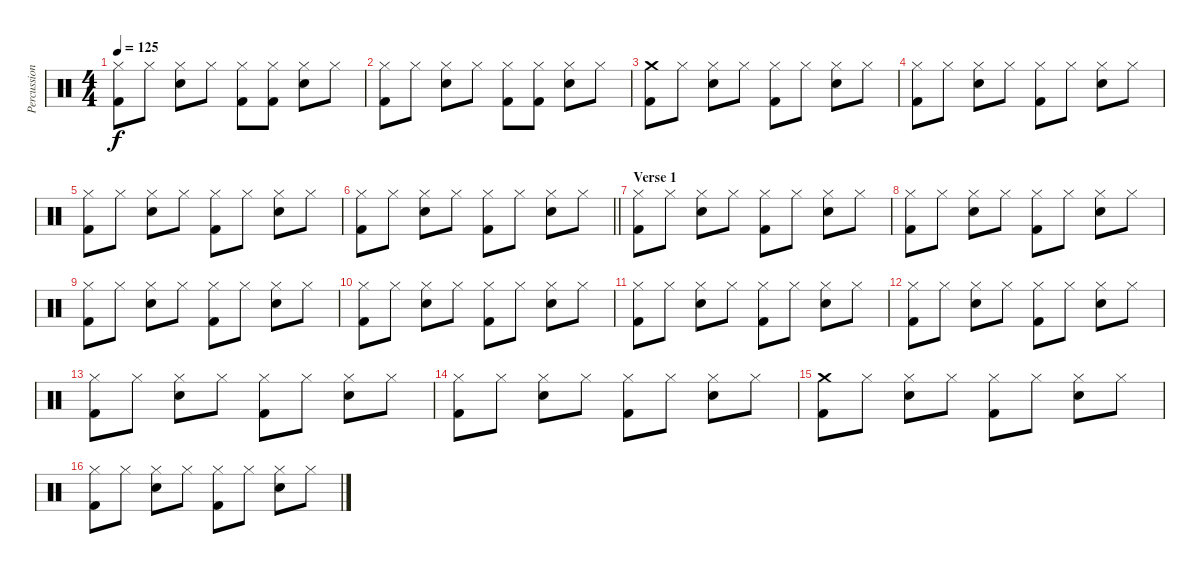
\track ("Percussion" "Percussion") {instrument percussion}
\staff {score}
\articulation defaults
\ts (4 4)
\tempo 125
\clef neutral
\ks c
("Hi-Hat (closed)" "Kick (hit) 2").8{dy f} "Hi-Hat (closed)".8 ("Hi-Hat (closed)" "Snare (hit) 2").8 "Hi-Hat (closed)".8 ("Hi-Hat (closed)" "Kick (hit) 2").8 ("Hi-Hat (closed)" "Kick (hit) 2").8 ("Hi-Hat (closed)" "Snare (hit) 2").8 "Hi-Hat (closed)".8 |
("Hi-Hat (closed)" "Kick (hit) 2").8 "Hi-Hat (closed)".8 ("Hi-Hat (closed)" "Snare (hit) 2").8 "Hi-Hat (closed)".8 ("Hi-Hat (closed)" "Kick (hit) 2").8 ("Hi-Hat (closed)" "Kick (hit) 2").8 ("Hi-Hat (closed)" "Snare (hit) 2").8 "Hi-Hat (closed)".8 |
("Crash medium (hit)" "Kick (hit) 2").8 "Hi-Hat (closed)".8 ("Hi-Hat (closed)" "Snare (hit) 2").8 "Hi-Hat (closed)".8 ("Hi-Hat (closed)" "Kick (hit) 2").8 "Hi-Hat (closed)".8 ("Hi-Hat (closed)" "Snare (hit) 2").8 "Hi-Hat (closed)".8 |
("Hi-Hat (closed)" "Kick (hit) 2").8 "Hi-Hat (closed)".8 ("Hi-Hat (closed)" "Snare (hit) 2").8 "Hi-Hat (closed)".8 ("Hi-Hat (closed)" "Kick (hit) 2").8 "Hi-Hat (closed)".8 ("Hi-Hat (closed)" "Snare (hit) 2").8 "Hi-Hat (closed)".8 |
("Hi-Hat (closed)" "Kick (hit) 2").8 "Hi-Hat (closed)".8 ("Hi-Hat (closed)" "Snare (hit) 2").8 "Hi-Hat (closed)".8 ("Hi-Hat (closed)" "Kick (hit) 2").8 "Hi-Hat (closed)".8 ("Hi-Hat (closed)" "Snare (hit) 2").8 "Hi-Hat (closed)".8 |
\barLineRight lightlight
("Hi-Hat (closed)" "Kick (hit) 2").8 "Hi-Hat (closed)".8 ("Hi-Hat (closed)" "Snare (hit) 2").8 "Hi-Hat (closed)".8 ("Hi-Hat (closed)" "Kick (hit) 2").8 "Hi-Hat (closed)".8 ("Hi-Hat (closed)" "Snare (hit) 2").8 "Hi-Hat (closed)".8 |
\section ("" "Verse 1")
("Hi-Hat (closed)" "Kick (hit) 2").8 "Hi-Hat (closed)".8 ("Hi-Hat (closed)" "Snare (hit) 2").8 "Hi-Hat (closed)".8 ("Hi-Hat (closed)" "Kick (hit) 2").8 "Hi-Hat (closed)".8 ("Hi-Hat (closed)" "Snare (hit) 2").8 "Hi-Hat (closed)".8 |
("Hi-Hat (closed)" "Kick (hit) 2").8 "Hi-Hat (closed)".8 ("Hi-Hat (closed)" "Snare (hit) 2").8 "Hi-Hat (closed)".8 ("Hi-Hat (closed)" "Kick (hit) 2").8 "Hi-Hat (closed)".8 ("Hi-Hat (closed)" "Snare (hit) 2").8 "Hi-Hat (closed)".8 |
("Hi-Hat (closed)" "Kick (hit) 2").8 "Hi-Hat (closed)".8 ("Hi-Hat (closed)" "Snare (hit) 2").8 "Hi-Hat (closed)".8 ("Hi-Hat (closed)" "Kick (hit) 2").8 "Hi-Hat (closed)".8 ("Hi-Hat (closed)" "Snare (hit) 2").8 "Hi-Hat (closed)".8 |
("Hi-Hat (closed)" "Kick (hit) 2").8 "Hi-Hat (closed)".8 ("Hi-Hat (closed)" "Snare (hit) 2").8 "Hi-Hat (closed)".8 ("Hi-Hat (closed)" "Kick (hit) 2").8 "Hi-Hat (closed)".8 ("Hi-Hat (closed)" "Snare (hit) 2").8 "Hi-Hat (closed)".8 |
("Hi-Hat (closed)" "Kick (hit) 2").8 "Hi-Hat (closed)".8 ("Hi-Hat (closed)" "Snare (hit) 2").8 "Hi-Hat (closed)".8 ("Hi-Hat (closed)" "Kick (hit) 2").8 "Hi-Hat (closed)".8 ("Hi-Hat (closed)" "Snare (hit) 2").8 "Hi-Hat (closed)".8 |
("Hi-Hat (closed)" "Kick (hit) 2").8 "Hi-Hat (closed)".8 ("Hi-Hat (closed)" "Snare (hit) 2").8 "Hi-Hat (closed)".8 ("Hi-Hat (closed)" "Kick (hit) 2").8 "Hi-Hat (closed)".8 ("Hi-Hat (closed)" "Snare (hit) 2").8 "Hi-Hat (closed)".8 |
("Hi-Hat (closed)" "Kick (hit) 2").8 "Hi-Hat (closed)".8 ("Hi-Hat (closed)" "Snare (hit) 2").8 "Hi-Hat (closed)".8 ("Hi-Hat (closed)" "Kick (hit) 2").8 "Hi-Hat (closed)".8 ("Hi-Hat (closed)" "Snare (hit) 2").8 "Hi-Hat (closed)".8 |
("Hi-Hat (closed)" "Kick (hit) 2").8 "Hi-Hat (closed)".8 ("Hi-Hat (closed)" "Snare (hit) 2").8 "Hi-Hat (closed)".8 ("Hi-Hat (closed)" "Kick (hit) 2").8 "Hi-Hat (closed)".8 ("Hi-Hat (closed)" "Snare (hit) 2").8 "Hi-Hat (closed)".8 |
("Crash medium (hit)" "Kick (hit) 2").8 "Hi-Hat (closed)".8 ("Hi-Hat (closed)" "Snare (hit) 2").8 "Hi-Hat (closed)".8 ("Hi-Hat (closed)" "Kick (hit) 2").8 "Hi-Hat (closed)".8 ("Hi-Hat (closed)" "Snare (hit) 2").8 "Hi-Hat (closed)".8 |
("Hi-Hat (closed)" "Kick (hit) 2").8 "Hi-Hat (closed)".8 ("Hi-Hat (closed)" "Snare (hit) 2").8 "Hi-Hat (closed)".8 ("Hi-Hat (closed)" "Kick (hit) 2").8 "Hi-Hat (closed)".8 ("Hi-Hat (closed)" "Snare (hit) 2").8 "Hi-Hat (closed)".8
